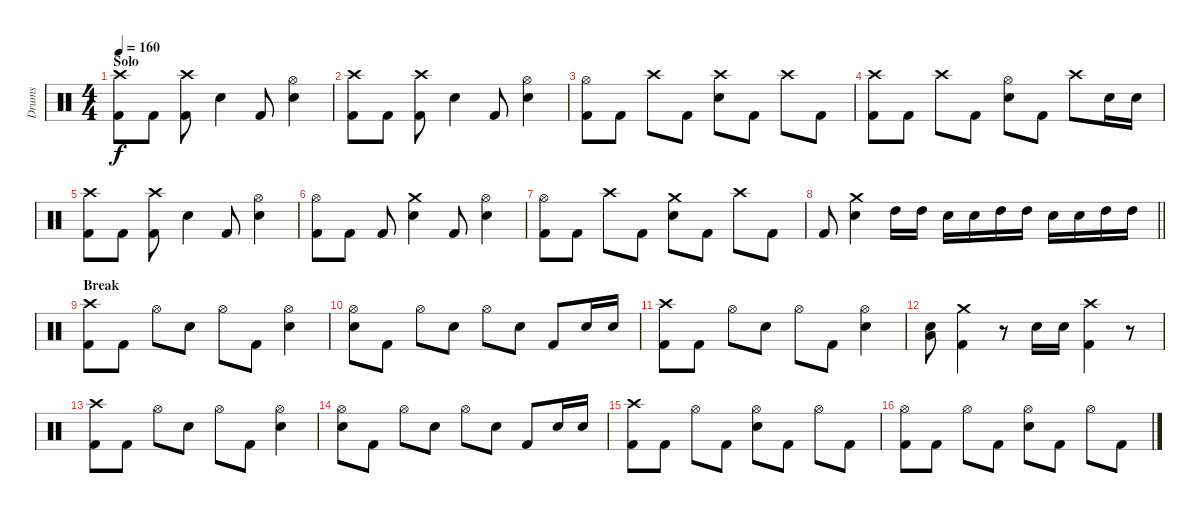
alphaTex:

\track ("Drums" "Drums") {instrument percussion}
\staff {score}
\articulation defaults
\ts (4 4)
\section ("" "Solo")
\tempo 160
\clef neutral
\ks c
("Kick (hit) 2" "Crash high (hit)").8{dy f} "Kick (hit) 2".8 ("Kick (hit) 2" "Crash high (hit)").8 "Electric Snare (hit)".4 "Kick (hit) 2".8 ("Electric Snare (hit)" "Hi-Hat (open)").4 |
("Kick (hit) 2" "Crash high (hit)").8 "Kick (hit) 2".8 ("Kick (hit) 2" "Crash high (hit)").8 "Electric Snare (hit)".4 "Kick (hit) 2".8 ("Electric Snare (hit)" "Hi-Hat (open)").4 |
("Kick (hit) 2" "Hi-Hat (open)").8 "Kick (hit) 2".8 "Crash high (hit)".8 "Kick (hit) 2".8 ("Electric Snare (hit)" "Crash high (hit)").8 "Kick (hit) 2".8 "Crash high (hit)".8 "Kick (hit) 2".8 |
("Kick (hit) 2" "Crash high (hit)").8 "Kick (hit) 2".8 "Crash high (hit)".8 "Kick (hit) 2".8 ("Electric Snare (hit)" "Hi-Hat (open)").8 "Kick (hit) 2".8 "Crash high (hit)".8 "Electric Snare (hit)".16 "Electric Snare (hit)".16 |
("Kick (hit) 2" "Crash high (hit)").8 "Kick (hit) 2".8 ("Kick (hit) 2" "Crash high (hit)").8 "Electric Snare (hit)".4 "Kick (hit) 2".8 ("Electric Snare (hit)" "Hi-Hat (open)").4 |
("Kick (hit) 2" "Hi-Hat (open)").8 "Kick (hit) 2".8 "Kick (hit) 2".8 ("Electric Snare (hit)" "Crash medium (hit)").4 "Kick (hit) 2".8 ("Electric Snare (hit)" "Hi-Hat (open)").4 |
("Kick (hit) 2" "Hi-Hat (open)").8 "Kick (hit) 2".8 "Crash high (hit)".8 "Kick (hit) 2".8 ("Electric Snare (hit)" "Crash medium (hit)").8 "Kick (hit) 2".8 "Crash high (hit)".8 "Kick (hit) 2".8 |
\barLineRight lightlight "Kick (hit) 2".8
("Electric Snare (hit)" "Crash medium (hit)").4 "High Tom (hit)".16 "High Tom (hit)".16 "Electric Snare (hit)".16 "Electric Snare (hit)".16 "High Tom (hit)".16 "High Tom (hit)".16 "Electric Snare (hit)".16 "Electric Snare (hit)".16 "High Tom (hit)".16 "High Tom (hit)".16 |
\section ("" "Break")
("Kick (hit) 2" "Crash high (hit)").8 "Kick (hit) 2".8 "Hi-Hat (open)".8 "Electric Snare (hit)".8 "Hi-Hat (open)".8 "Kick (hit) 2".8 ("Hi-Hat (open)" "Electric Snare (hit)").4 |
("Electric Snare (hit)" "Hi-Hat (open)").8 "Kick (hit) 2".8 "Hi-Hat (open)".8 "Electric Snare (hit)".8 "Hi-Hat (open)".8 "Electric Snare (hit)".8 "Kick (hit) 2".8 "Electric Snare (hit)".16 "Electric Snare (hit)".16 |
("Kick (hit) 2" "Crash high (hit)").8 "Kick (hit) 2".8 "Hi-Hat (open)".8 "Electric Snare (hit)".8 "Hi-Hat (open)".8 "Kick (hit) 2".8 ("Hi-Hat (open)" "Electric Snare (hit)").4 |
("Low Floor Tom (hit)" "Electric Snare (hit)").8 ("Kick (hit) 2" "Crash medium (hit)").4 r.8 "Electric Snare (hit)".16 "Electric Snare (hit)".16 ("Kick (hit) 2" "Crash high (hit)").4 r.8 |
("Kick (hit) 2" "Crash high (hit)").8 "Kick (hit) 2".8 "Hi-Hat (open)".8 "Electric Snare (hit)".8 "Hi-Hat (open)".8 "Kick (hit) 2".8 ("Hi-Hat (open)" "Electric Snare (hit)").4 |
("Electric Snare (hit)" "Hi-Hat (open)").8 "Kick (hit) 2".8 "Hi-Hat (open)".8 "Electric Snare (hit)".8 "Hi-Hat (open)".8 "Electric Snare (hit)".8 "Kick (hit) 2".8 "Electric Snare (hit)".16 "Electric Snare (hit)".16 |
("Kick (hit) 2" "Crash high (hit)").8 "Kick (hit) 2".8 "Hi-Hat (open)".8 "Kick (hit) 2".8 ("Hi-Hat (open)" "Electric Snare (hit)").8 "Kick (hit) 2".8 "Hi-Hat (open)".8 "Kick (hit) 2".8 |
("Kick (hit) 2" "Hi-Hat (open)").8 "Kick (hit) 2".8 "Hi-Hat (open)".8 "Kick (hit) 2".8 ("Hi-Hat (open)" "Electric Snare (hit)").8 "Kick (hit) 2".8 "Hi-Hat (open)".8 "Kick (hit) 2".8
